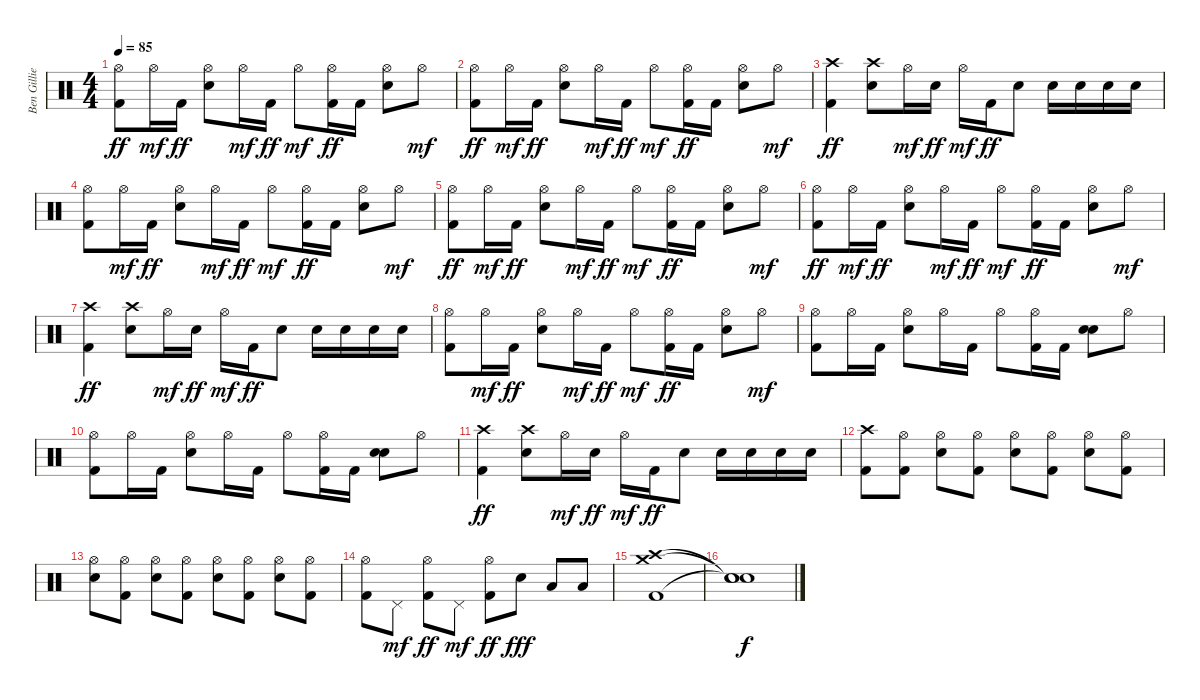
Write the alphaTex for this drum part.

\track ("Ben Gillies" "Ben Gillie") {instrument percussion}
\staff {score}
\articulation defaults
\ts (4 4)
\tempo 85
\clef neutral
\ks c
("Hi-Hat (open)" "Kick (hit) 2").8{dy ff} "Hi-Hat (open)".16{dy mf} "Kick (hit) 2".16{dy ff} ("Hi-Hat (open)" "Electric Snare (hit)").8 "Hi-Hat (open)".16{dy mf} "Kick (hit) 2".16{dy ff} "Hi-Hat (open)".8{dy mf} ("Hi-Hat (open)" "Kick (hit) 2").16{dy ff} "Kick (hit) 2".16 ("Hi-Hat (open)" "Electric Snare (hit)").8 "Hi-Hat (open)".8{dy mf} |
("Hi-Hat (open)" "Kick (hit) 2").8{dy ff} "Hi-Hat (open)".16{dy mf} "Kick (hit) 2".16{dy ff} ("Hi-Hat (open)" "Electric Snare (hit)").8 "Hi-Hat (open)".16{dy mf} "Kick (hit) 2".16{dy ff} "Hi-Hat (open)".8{dy mf} ("Hi-Hat (open)" "Kick (hit) 2").16{dy ff} "Kick (hit) 2".16 ("Hi-Hat (open)" "Electric Snare (hit)").8 "Hi-Hat (open)".8{dy mf} |
("Crash high (hit)" "Kick (hit) 2").4{dy ff} ("Crash high (hit)" "Electric Snare (hit)").8 "Hi-Hat (open)".16{dy mf} "Electric Snare (hit)".16{dy ff} "Hi-Hat (open)".16{dy mf} "Kick (hit) 2".16{dy ff} "Electric Snare (hit)".8 "Electric Snare (hit)".16 "Electric Snare (hit)".16 "Electric Snare (hit)".16 "Electric Snare (hit)".16 |
("Hi-Hat (open)" "Kick (hit) 2").8 "Hi-Hat (open)".16{dy mf} "Kick (hit) 2".16{dy ff} ("Hi-Hat (open)" "Electric Snare (hit)").8 "Hi-Hat (open)".16{dy mf} "Kick (hit) 2".16{dy ff} "Hi-Hat (open)".8{dy mf} ("Hi-Hat (open)" "Kick (hit) 2").16{dy ff} "Kick (hit) 2".16 ("Hi-Hat (open)" "Electric Snare (hit)").8 "Hi-Hat (open)".8{dy mf} |
("Hi-Hat (open)" "Kick (hit) 2").8{dy ff} "Hi-Hat (open)".16{dy mf} "Kick (hit) 2".16{dy ff} ("Hi-Hat (open)" "Electric Snare (hit)").8 "Hi-Hat (open)".16{dy mf} "Kick (hit) 2".16{dy ff} "Hi-Hat (open)".8{dy mf} ("Hi-Hat (open)" "Kick (hit) 2").16{dy ff} "Kick (hit) 2".16 ("Hi-Hat (open)" "Electric Snare (hit)").8 "Hi-Hat (open)".8{dy mf} |
("Hi-Hat (open)" "Kick (hit) 2").8{dy ff} "Hi-Hat (open)".16{dy mf} "Kick (hit) 2".16{dy ff} ("Hi-Hat (open)" "Electric Snare (hit)").8 "Hi-Hat (open)".16{dy mf} "Kick (hit) 2".16{dy ff} "Hi-Hat (open)".8{dy mf} ("Hi-Hat (open)" "Kick (hit) 2").16{dy ff} "Kick (hit) 2".16 ("Hi-Hat (open)" "Electric Snare (hit)").8 "Hi-Hat (open)".8{dy mf} |
("Crash high (hit)" "Kick (hit) 2").4{dy ff} ("Crash high (hit)" "Electric Snare (hit)").8 "Hi-Hat (open)".16{dy mf} "Electric Snare (hit)".16{dy ff} "Hi-Hat (open)".16{dy mf} "Kick (hit) 2".16{dy ff} "Electric Snare (hit)".8 "Electric Snare (hit)".16 "Electric Snare (hit)".16 "Electric Snare (hit)".16 "Electric Snare (hit)".16 |
("Hi-Hat (open)" "Kick (hit) 2").8 "Hi-Hat (open)".16{dy mf} "Kick (hit) 2".16{dy ff} ("Hi-Hat (open)" "Electric Snare (hit)").8 "Hi-Hat (open)".16{dy mf} "Kick (hit) 2".16{dy ff} "Hi-Hat (open)".8{dy mf} ("Hi-Hat (open)" "Kick (hit) 2").16{dy ff} "Kick (hit) 2".16 ("Hi-Hat (open)" "Electric Snare (hit)").8 "Hi-Hat (open)".8{dy mf} |
("Hi-Hat (open)" "Kick (hit) 2").8 "Hi-Hat (open)".16 "Kick (hit) 2".16 ("Hi-Hat (open)" "Electric Snare (hit)").8 "Hi-Hat (open)".16 "Kick (hit) 2".16 "Hi-Hat (open)".8 ("Hi-Hat (open)" "Kick (hit) 2").16 "Kick (hit) 2".16 ("Electric Snare (hit)" "Electric Snare (hit)").8 "Hi-Hat (open)".8 |
("Hi-Hat (open)" "Kick (hit) 2").8 "Hi-Hat (open)".16 "Kick (hit) 2".16 ("Hi-Hat (open)" "Electric Snare (hit)").8 "Hi-Hat (open)".16 "Kick (hit) 2".16 "Hi-Hat (open)".8 ("Hi-Hat (open)" "Kick (hit) 2").16 "Kick (hit) 2".16 ("Electric Snare (hit)" "Electric Snare (hit)").8 "Hi-Hat (open)".8 |
("Crash high (hit)" "Kick (hit) 2").4{dy ff} ("Crash high (hit)" "Electric Snare (hit)").8 "Hi-Hat (open)".16{dy mf} "Electric Snare (hit)".16{dy ff} "Hi-Hat (open)".16{dy mf} "Kick (hit) 2".16{dy ff} "Electric Snare (hit)".8 "Electric Snare (hit)".16 "Electric Snare (hit)".16 "Electric Snare (hit)".16 "Electric Snare (hit)".16 |
("Crash high (hit)" "Kick (hit) 2").8 ("Hi-Hat (open)" "Kick (hit) 2").8 ("Hi-Hat (open)" "Electric Snare (hit)").8 ("Hi-Hat (open)" "Kick (hit) 2").8 ("Hi-Hat (open)" "Electric Snare (hit)").8 ("Hi-Hat (open)" "Kick (hit) 2").8 ("Hi-Hat (open)" "Electric Snare (hit)").8 ("Hi-Hat (open)" "Kick (hit) 2").8 |
("Hi-Hat (open)" "Electric Snare (hit)").8 ("Hi-Hat (open)" "Kick (hit) 2").8 ("Hi-Hat (open)" "Electric Snare (hit)").8 ("Hi-Hat (open)" "Kick (hit) 2").8 ("Hi-Hat (open)" "Electric Snare (hit)").8 ("Hi-Hat (open)" "Kick (hit) 2").8 ("Hi-Hat (open)" "Electric Snare (hit)").8 ("Hi-Hat (open)" "Kick (hit) 2").8 |
("Hi-Hat (open)" "Kick (hit) 2").8 "Pedal Hi-Hat (hit)".8{dy mf} ("Hi-Hat (open)" "Kick (hit) 2").8{dy ff} "Pedal Hi-Hat (hit)".8{dy mf} ("Hi-Hat (open)" "Kick (hit) 2").8{dy ff} "Electric Snare (hit)".8{dy fff} "Low Tom (hit)".8 "Low Floor Tom (hit)".8 |
("Crash high (hit)" "Crash medium (hit)" "Kick (hit) 2").1 |
("Snare (hit)"{t} "Snare (hit)"{t} "Snare (hit)"{t}).1{dy f}
